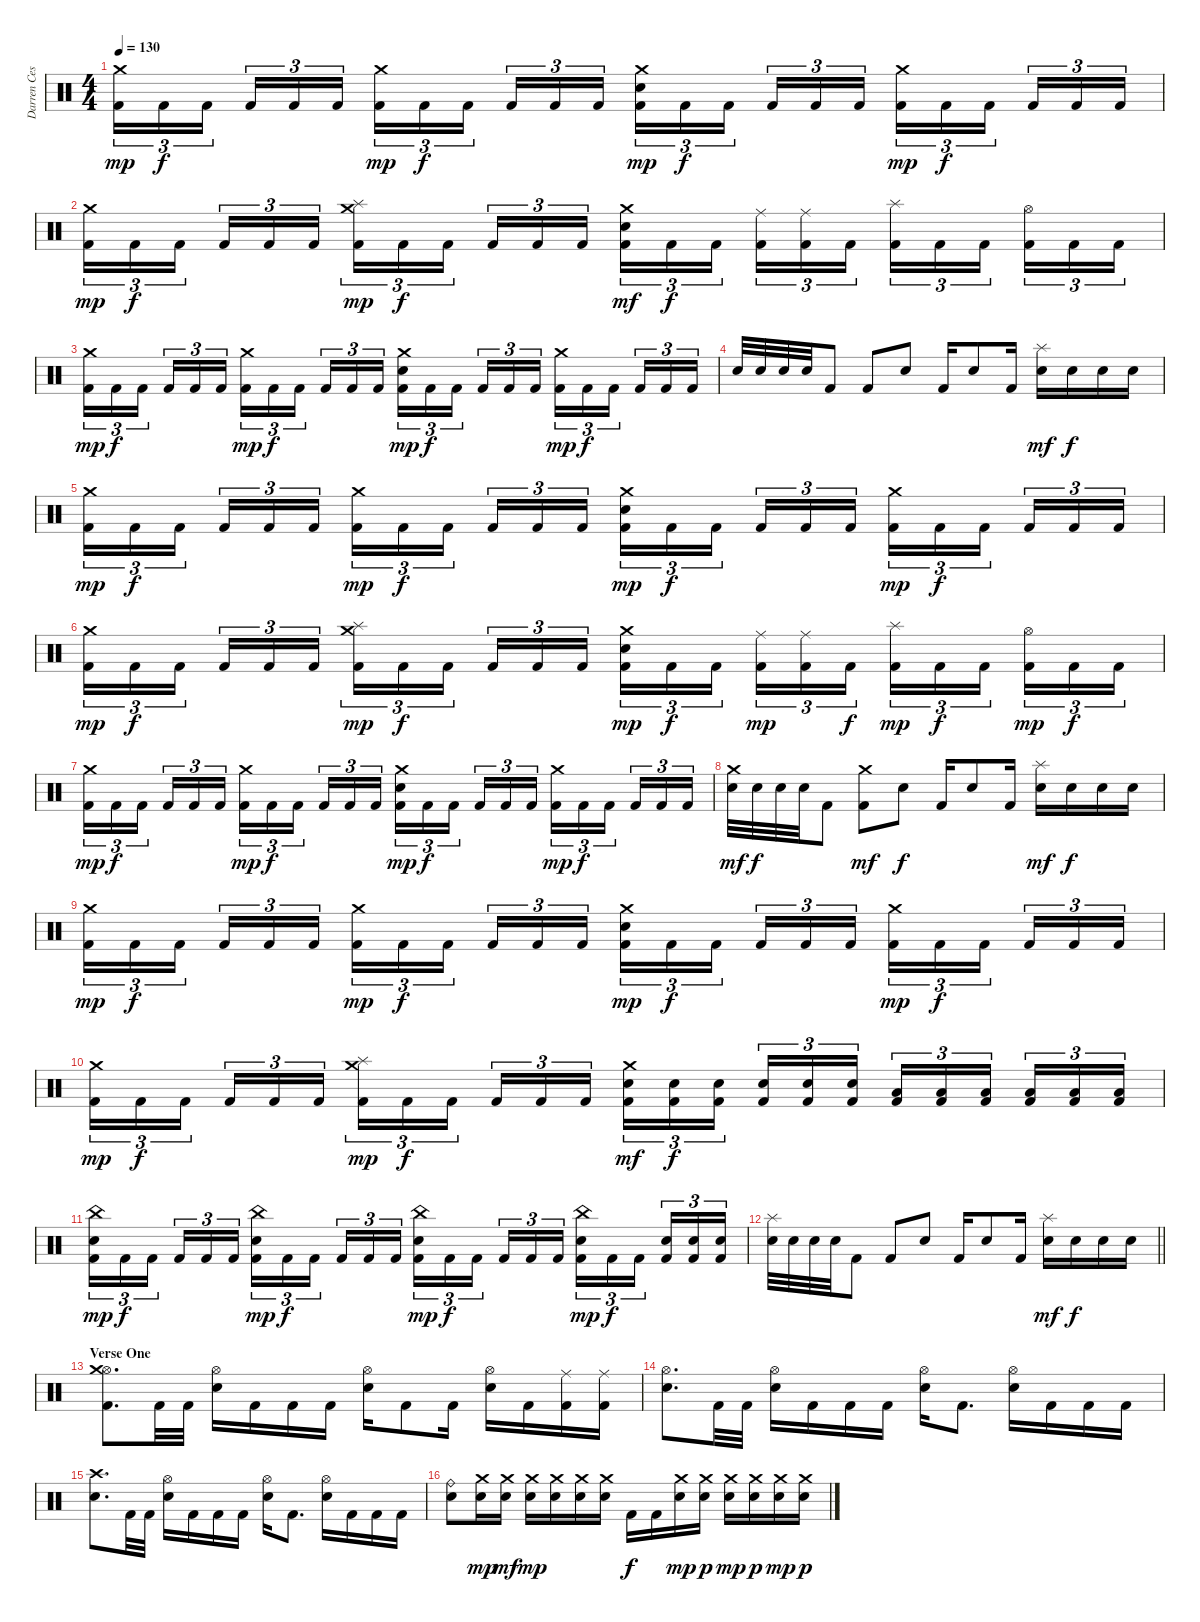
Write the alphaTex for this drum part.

\track ("Darren Cesca" "Darren Ces") {instrument percussion}
\staff {score}
\articulation defaults
\ts (4 4)
\tempo 130
\clef neutral
\ks c
("Crash medium (hit)" "Kick (hit) 2").16{tu (3 2) dy mp} "Kick (hit) 2".16{tu (3 2) dy f} "Kick (hit) 2".16{tu (3 2) beam splitsecondary} "Kick (hit) 2".16{tu (3 2)} "Kick (hit) 2".16{tu (3 2)} "Kick (hit) 2".16{tu (3 2)} ("Crash medium (hit)" "Kick (hit) 2").16{tu (3 2) dy mp} "Kick (hit) 2".16{tu (3 2) dy f} "Kick (hit) 2".16{tu (3 2) beam splitsecondary} "Kick (hit) 2".16{tu (3 2)} "Kick (hit) 2".16{tu (3 2)} "Kick (hit) 2".16{tu (3 2)} ("Crash medium (hit)" "Electric Snare (hit)" "Kick (hit) 2").16{tu (3 2) dy mp} "Kick (hit) 2".16{tu (3 2) dy f} "Kick (hit) 2".16{tu (3 2) beam splitsecondary} "Kick (hit) 2".16{tu (3 2)} "Kick (hit) 2".16{tu (3 2)} "Kick (hit) 2".16{tu (3 2)} ("Crash medium (hit)" "Kick (hit) 2").16{tu (3 2) dy mp} "Kick (hit) 2".16{tu (3 2) dy f} "Kick (hit) 2".16{tu (3 2) beam splitsecondary} "Kick (hit) 2".16{tu (3 2)} "Kick (hit) 2".16{tu (3 2)} "Kick (hit) 2".16{tu (3 2)} |
("Crash medium (hit)" "Kick (hit) 2").16{tu (3 2) dy mp} "Kick (hit) 2".16{tu (3 2) dy f} "Kick (hit) 2".16{tu (3 2) beam splitsecondary} "Kick (hit) 2".16{tu (3 2)} "Kick (hit) 2".16{tu (3 2)} "Kick (hit) 2".16{tu (3 2)} ("Crash medium (hit)" "Splash (hit)" "Kick (hit) 2").16{tu (3 2) dy mp} "Kick (hit) 2".16{tu (3 2) dy f} "Kick (hit) 2".16{tu (3 2) beam splitsecondary} "Kick (hit) 2".16{tu (3 2)} "Kick (hit) 2".16{tu (3 2)} "Kick (hit) 2".16{tu (3 2)} ("Crash medium (hit)" "Electric Snare (hit)" "Kick (hit) 2").16{tu (3 2) dy mf} "Kick (hit) 2".16{tu (3 2) dy f} "Kick (hit) 2".16{tu (3 2) beam splitsecondary} ("Ride (middle)" "Kick (hit) 2").16{tu (3 2)} ("Ride (middle)" "Kick (hit) 2").16{tu (3 2)} "Kick (hit) 2".16{tu (3 2)} ("Splash (hit)" "Kick (hit) 2").16{tu (3 2)} "Kick (hit) 2".16{tu (3 2)} "Kick (hit) 2".16{tu (3 2) beam splitsecondary} ("Hi-Hat (open)" "Kick (hit) 2").16{tu (3 2)} "Kick (hit) 2".16{tu (3 2)} "Kick (hit) 2".16{tu (3 2)} |
("Crash medium (hit)" "Kick (hit) 2").16{tu (3 2) dy mp} "Kick (hit) 2".16{tu (3 2) dy f} "Kick (hit) 2".16{tu (3 2) beam splitsecondary} "Kick (hit) 2".16{tu (3 2)} "Kick (hit) 2".16{tu (3 2)} "Kick (hit) 2".16{tu (3 2)} ("Crash medium (hit)" "Kick (hit) 2").16{tu (3 2) dy mp} "Kick (hit) 2".16{tu (3 2) dy f} "Kick (hit) 2".16{tu (3 2) beam splitsecondary} "Kick (hit) 2".16{tu (3 2)} "Kick (hit) 2".16{tu (3 2)} "Kick (hit) 2".16{tu (3 2)} ("Crash medium (hit)" "Electric Snare (hit)" "Kick (hit) 2").16{tu (3 2) dy mp} "Kick (hit) 2".16{tu (3 2) dy f} "Kick (hit) 2".16{tu (3 2) beam splitsecondary} "Kick (hit) 2".16{tu (3 2)} "Kick (hit) 2".16{tu (3 2)} "Kick (hit) 2".16{tu (3 2)} ("Crash medium (hit)" "Kick (hit) 2").16{tu (3 2) dy mp} "Kick (hit) 2".16{tu (3 2) dy f} "Kick (hit) 2".16{tu (3 2) beam splitsecondary} "Kick (hit) 2".16{tu (3 2)} "Kick (hit) 2".16{tu (3 2)} "Kick (hit) 2".16{tu (3 2)} |
"Electric Snare (hit)".32 "Electric Snare (hit)".32 "Electric Snare (hit)".32 "Electric Snare (hit)".32 "Kick (hit) 2".8 "Kick (hit) 2".8 "Electric Snare (hit)".8 "Kick (hit) 2".16 "Electric Snare (hit)".8 "Kick (hit) 2".16 ("Splash (hit)" "Electric Snare (hit)").16{dy mf} "Electric Snare (hit)".16{dy f} "Electric Snare (hit)".16 "Electric Snare (hit)".16 |
("Crash medium (hit)" "Kick (hit) 2").16{tu (3 2) dy mp} "Kick (hit) 2".16{tu (3 2) dy f} "Kick (hit) 2".16{tu (3 2) beam splitsecondary} "Kick (hit) 2".16{tu (3 2)} "Kick (hit) 2".16{tu (3 2)} "Kick (hit) 2".16{tu (3 2)} ("Crash medium (hit)" "Kick (hit) 2").16{tu (3 2) dy mp} "Kick (hit) 2".16{tu (3 2) dy f} "Kick (hit) 2".16{tu (3 2) beam splitsecondary} "Kick (hit) 2".16{tu (3 2)} "Kick (hit) 2".16{tu (3 2)} "Kick (hit) 2".16{tu (3 2)} ("Crash medium (hit)" "Electric Snare (hit)" "Kick (hit) 2").16{tu (3 2) dy mp} "Kick (hit) 2".16{tu (3 2) dy f} "Kick (hit) 2".16{tu (3 2) beam splitsecondary} "Kick (hit) 2".16{tu (3 2)} "Kick (hit) 2".16{tu (3 2)} "Kick (hit) 2".16{tu (3 2)} ("Crash medium (hit)" "Kick (hit) 2").16{tu (3 2) dy mp} "Kick (hit) 2".16{tu (3 2) dy f} "Kick (hit) 2".16{tu (3 2) beam splitsecondary} "Kick (hit) 2".16{tu (3 2)} "Kick (hit) 2".16{tu (3 2)} "Kick (hit) 2".16{tu (3 2)} |
("Crash medium (hit)" "Kick (hit) 2").16{tu (3 2) dy mp} "Kick (hit) 2".16{tu (3 2) dy f} "Kick (hit) 2".16{tu (3 2) beam splitsecondary} "Kick (hit) 2".16{tu (3 2)} "Kick (hit) 2".16{tu (3 2)} "Kick (hit) 2".16{tu (3 2)} ("Crash medium (hit)" "Splash (hit)" "Kick (hit) 2").16{tu (3 2) dy mp} "Kick (hit) 2".16{tu (3 2) dy f} "Kick (hit) 2".16{tu (3 2) beam splitsecondary} "Kick (hit) 2".16{tu (3 2)} "Kick (hit) 2".16{tu (3 2)} "Kick (hit) 2".16{tu (3 2)} ("Crash medium (hit)" "Electric Snare (hit)" "Kick (hit) 2").16{tu (3 2) dy mp} "Kick (hit) 2".16{tu (3 2) dy f} "Kick (hit) 2".16{tu (3 2) beam splitsecondary} ("Ride (middle)" "Kick (hit) 2").16{tu (3 2) dy mp} ("Ride (middle)" "Kick (hit) 2").16{tu (3 2)} "Kick (hit) 2".16{tu (3 2) dy f} ("Splash (hit)" "Kick (hit) 2").16{tu (3 2) dy mp} "Kick (hit) 2".16{tu (3 2) dy f} "Kick (hit) 2".16{tu (3 2) beam splitsecondary} ("Hi-Hat (open)" "Kick (hit) 2").16{tu (3 2) dy mp} "Kick (hit) 2".16{tu (3 2) dy f} "Kick (hit) 2".16{tu (3 2)} |
("Crash medium (hit)" "Kick (hit) 2").16{tu (3 2) dy mp} "Kick (hit) 2".16{tu (3 2) dy f} "Kick (hit) 2".16{tu (3 2) beam splitsecondary} "Kick (hit) 2".16{tu (3 2)} "Kick (hit) 2".16{tu (3 2)} "Kick (hit) 2".16{tu (3 2)} ("Crash medium (hit)" "Kick (hit) 2").16{tu (3 2) dy mp} "Kick (hit) 2".16{tu (3 2) dy f} "Kick (hit) 2".16{tu (3 2) beam splitsecondary} "Kick (hit) 2".16{tu (3 2)} "Kick (hit) 2".16{tu (3 2)} "Kick (hit) 2".16{tu (3 2)} ("Crash medium (hit)" "Electric Snare (hit)" "Kick (hit) 2").16{tu (3 2) dy mp} "Kick (hit) 2".16{tu (3 2) dy f} "Kick (hit) 2".16{tu (3 2) beam splitsecondary} "Kick (hit) 2".16{tu (3 2)} "Kick (hit) 2".16{tu (3 2)} "Kick (hit) 2".16{tu (3 2)} ("Crash medium (hit)" "Kick (hit) 2").16{tu (3 2) dy mp} "Kick (hit) 2".16{tu (3 2) dy f} "Kick (hit) 2".16{tu (3 2) beam splitsecondary} "Kick (hit) 2".16{tu (3 2)} "Kick (hit) 2".16{tu (3 2)} "Kick (hit) 2".16{tu (3 2)} |
("Crash medium (hit)" "Electric Snare (hit)").32{dy mf} "Electric Snare (hit)".32{dy f} "Electric Snare (hit)".32 "Electric Snare (hit)".32 "Kick (hit) 2".8 ("Crash medium (hit)" "Kick (hit) 2").8{dy mf} "Electric Snare (hit)".8{dy f} "Kick (hit) 2".16 "Electric Snare (hit)".8 "Kick (hit) 2".16 ("Splash (hit)" "Electric Snare (hit)").16{dy mf} "Electric Snare (hit)".16{dy f} "Electric Snare (hit)".16 "Electric Snare (hit)".16 |
("Crash medium (hit)" "Kick (hit) 2").16{tu (3 2) dy mp} "Kick (hit) 2".16{tu (3 2) dy f} "Kick (hit) 2".16{tu (3 2) beam splitsecondary} "Kick (hit) 2".16{tu (3 2)} "Kick (hit) 2".16{tu (3 2)} "Kick (hit) 2".16{tu (3 2)} ("Crash medium (hit)" "Kick (hit) 2").16{tu (3 2) dy mp} "Kick (hit) 2".16{tu (3 2) dy f} "Kick (hit) 2".16{tu (3 2) beam splitsecondary} "Kick (hit) 2".16{tu (3 2)} "Kick (hit) 2".16{tu (3 2)} "Kick (hit) 2".16{tu (3 2)} ("Crash medium (hit)" "Electric Snare (hit)" "Kick (hit) 2").16{tu (3 2) dy mp} "Kick (hit) 2".16{tu (3 2) dy f} "Kick (hit) 2".16{tu (3 2) beam splitsecondary} "Kick (hit) 2".16{tu (3 2)} "Kick (hit) 2".16{tu (3 2)} "Kick (hit) 2".16{tu (3 2)} ("Crash medium (hit)" "Kick (hit) 2").16{tu (3 2) dy mp} "Kick (hit) 2".16{tu (3 2) dy f} "Kick (hit) 2".16{tu (3 2) beam splitsecondary} "Kick (hit) 2".16{tu (3 2)} "Kick (hit) 2".16{tu (3 2)} "Kick (hit) 2".16{tu (3 2)} |
("Crash medium (hit)" "Kick (hit) 2").16{tu (3 2) dy mp} "Kick (hit) 2".16{tu (3 2) dy f} "Kick (hit) 2".16{tu (3 2) beam splitsecondary} "Kick (hit) 2".16{tu (3 2)} "Kick (hit) 2".16{tu (3 2)} "Kick (hit) 2".16{tu (3 2)} ("Crash medium (hit)" "Splash (hit)" "Kick (hit) 2").16{tu (3 2) dy mp} "Kick (hit) 2".16{tu (3 2) dy f} "Kick (hit) 2".16{tu (3 2) beam splitsecondary} "Kick (hit) 2".16{tu (3 2)} "Kick (hit) 2".16{tu (3 2)} "Kick (hit) 2".16{tu (3 2)} ("Crash medium (hit)" "Electric Snare (hit)" "Kick (hit) 2").16{tu (3 2) dy mf} ("Electric Snare (hit)" "Kick (hit) 2").16{tu (3 2) dy f} ("Electric Snare (hit)" "Kick (hit) 2").16{tu (3 2) beam splitsecondary} ("Electric Snare (hit)" "Kick (hit) 2").16{tu (3 2)} ("Electric Snare (hit)" "Kick (hit) 2").16{tu (3 2)} ("Electric Snare (hit)" "Kick (hit) 2").16{tu (3 2)} ("Low Tom (hit)" "Kick (hit) 2").16{tu (3 2)} ("Low Tom (hit)" "Kick (hit) 2").16{tu (3 2)} ("Low Tom (hit)" "Kick (hit) 2").16{tu (3 2) beam splitsecondary} ("Low Tom (hit)" "Kick (hit) 2").16{tu (3 2)} ("Low Tom (hit)" "Kick (hit) 2").16{tu (3 2)} ("Low Tom (hit)" "Kick (hit) 2").16{tu (3 2)} |
("China (hit)" "Electric Snare (hit)" "Kick (hit) 2").16{tu (3 2) dy mp} "Kick (hit) 2".16{tu (3 2) dy f} "Kick (hit) 2".16{tu (3 2) beam splitsecondary} "Kick (hit) 2".16{tu (3 2)} "Kick (hit) 2".16{tu (3 2)} "Kick (hit) 2".16{tu (3 2)} ("China (hit)" "Electric Snare (hit)" "Kick (hit) 2").16{tu (3 2) dy mp} "Kick (hit) 2".16{tu (3 2) dy f} "Kick (hit) 2".16{tu (3 2) beam splitsecondary} "Kick (hit) 2".16{tu (3 2)} "Kick (hit) 2".16{tu (3 2)} "Kick (hit) 2".16{tu (3 2)} ("China (hit)" "Electric Snare (hit)" "Kick (hit) 2").16{tu (3 2) dy mp} "Kick (hit) 2".16{tu (3 2) dy f} "Kick (hit) 2".16{tu (3 2) beam splitsecondary} "Kick (hit) 2".16{tu (3 2)} "Kick (hit) 2".16{tu (3 2)} "Kick (hit) 2".16{tu (3 2)} ("China (hit)" "Electric Snare (hit)" "Kick (hit) 2").16{tu (3 2) dy mp} "Kick (hit) 2".16{tu (3 2) dy f} "Kick (hit) 2".16{tu (3 2) beam splitsecondary} ("Electric Snare (hit)" "Kick (hit) 2").16{tu (3 2)} ("Electric Snare (hit)" "Kick (hit) 2").16{tu (3 2)} ("Electric Snare (hit)" "Kick (hit) 2").16{tu (3 2)} |
\barLineRight lightlight
("Splash (hit)" "Electric Snare (hit)").32 "Electric Snare (hit)".32 "Electric Snare (hit)".32 "Electric Snare (hit)".32 "Kick (hit) 2".8 "Kick (hit) 2".8 "Electric Snare (hit)".8 "Kick (hit) 2".16 "Electric Snare (hit)".8 "Kick (hit) 2".16 ("Splash (hit)" "Electric Snare (hit)").16{dy mf} "Electric Snare (hit)".16{dy f} "Electric Snare (hit)".16 "Electric Snare (hit)".16 |
\section ("" "Verse One")
("Hi-Hat (open)" "Crash medium (hit)" "Kick (hit) 2").8{d} "Kick (hit) 2".32 "Kick (hit) 2".32 ("Hi-Hat (open)" "Electric Snare (hit)").16 "Kick (hit) 2".16 "Kick (hit) 2".16 "Kick (hit) 2".16 ("Hi-Hat (open)" "Electric Snare (hit)").16 "Kick (hit) 2".8 "Kick (hit) 2".16 ("Hi-Hat (open)" "Electric Snare (hit)").16 "Kick (hit) 2".16 ("Ride (middle)" "Kick (hit) 2").16 ("Ride (middle)" "Kick (hit) 2").16 |
("Hi-Hat (open)" "Electric Snare (hit)").8{d} "Kick (hit) 2".32 "Kick (hit) 2".32 ("Hi-Hat (open)" "Electric Snare (hit)").16 "Kick (hit) 2".16 "Kick (hit) 2".16 "Kick (hit) 2".16 ("Hi-Hat (open)" "Electric Snare (hit)").16 "Kick (hit) 2".8{d} ("Hi-Hat (open)" "Electric Snare (hit)").16 "Kick (hit) 2".16 "Kick (hit) 2".16 "Kick (hit) 2".16 |
("Crash high (hit)" "Electric Snare (hit)").8{d} "Kick (hit) 2".32 "Kick (hit) 2".32 ("Hi-Hat (open)" "Electric Snare (hit)").16 "Kick (hit) 2".16 "Kick (hit) 2".16 "Kick (hit) 2".16 ("Hi-Hat (open)" "Electric Snare (hit)").16 "Kick (hit) 2".8{d} ("Hi-Hat (open)" "Electric Snare (hit)").16 "Kick (hit) 2".16 "Kick (hit) 2".16 "Kick (hit) 2".16 |
("Ride (bell)" "Electric Snare (hit)").8 ("Crash medium (hit)" "Electric Snare (hit)").16{dy mp} ("Crash medium (hit)" "Electric Snare (hit)").16{dy mf} ("Crash medium (hit)" "Electric Snare (hit)").16{dy mp} ("Crash medium (hit)" "Electric Snare (hit)").16 ("Crash medium (hit)" "Electric Snare (hit)").16 ("Crash medium (hit)" "Electric Snare (hit)").16 "Kick (hit) 2".16{dy f} "Kick (hit) 2".16 ("Crash medium (hit)" "Electric Snare (hit)").16{dy mp} ("Crash medium (hit)" "Electric Snare (hit)").16{dy p} ("Crash medium (hit)" "Electric Snare (hit)").16{dy mp} ("Crash medium (hit)" "Electric Snare (hit)").16{dy p} ("Crash medium (hit)" "Electric Snare (hit)").16{dy mp} ("Crash medium (hit)" "Electric Snare (hit)").16{dy p}
